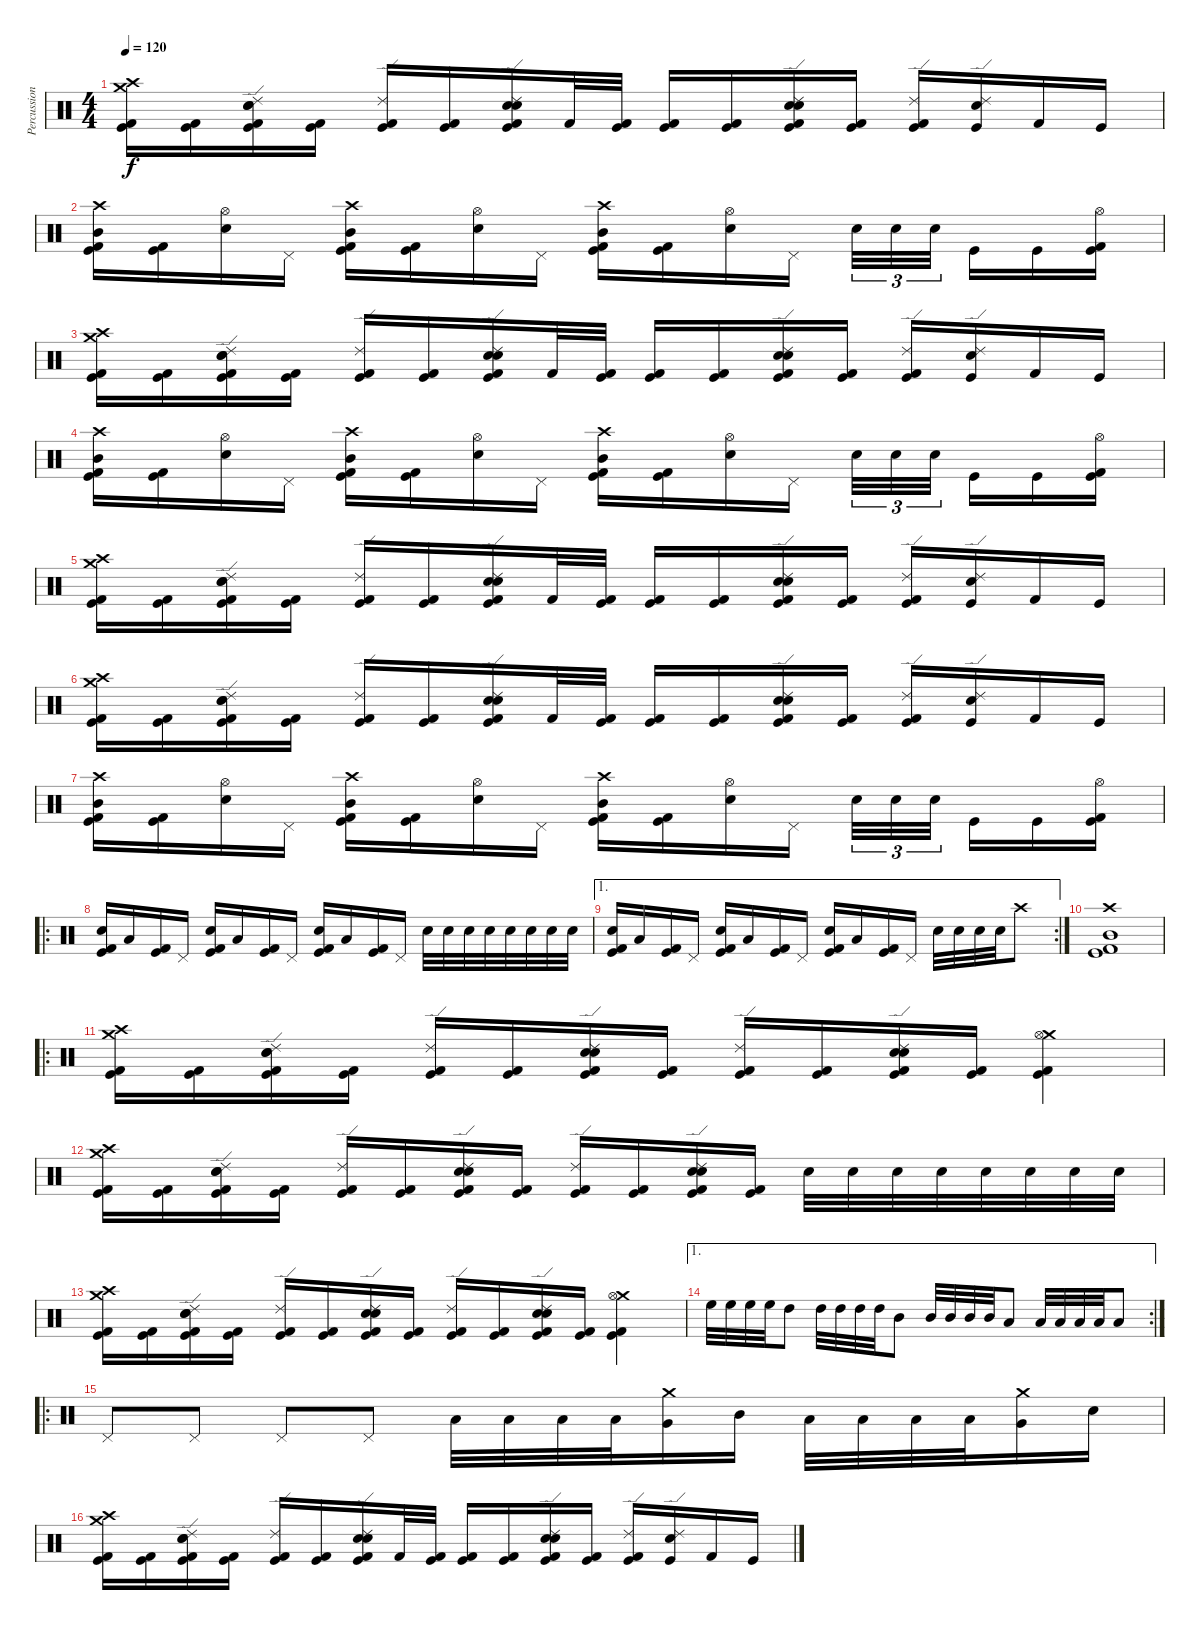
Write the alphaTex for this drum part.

\track ("Percussion" "Percussion") {instrument percussion}
\staff {score}
\articulation defaults
\ts (4 4)
\tempo 120
\clef neutral
\ks c
("Crash high (hit)" "Crash medium (hit)" "Kick (hit) 2" "Kick (hit)").16{dy f} ("Kick (hit) 2" "Kick (hit)").16 ("Ride (edge) 2" "Electric Snare (hit)" "Snare (hit) 2" "Kick (hit) 2" "Kick (hit)").16 ("Kick (hit) 2" "Kick (hit)").16 ("Ride (edge) 2" "Kick (hit) 2" "Kick (hit)").16 ("Kick (hit) 2" "Kick (hit)").16 ("Ride (edge) 2" "Electric Snare (hit)" "Snare (hit) 2" "Kick (hit) 2" "Kick (hit)").16 "Kick (hit) 2".32 ("Kick (hit) 2" "Kick (hit)").32 ("Kick (hit) 2" "Kick (hit)").16 ("Kick (hit) 2" "Kick (hit)").16 ("Ride (edge) 2" "Electric Snare (hit)" "Snare (hit) 2" "Kick (hit) 2" "Kick (hit)").16 ("Kick (hit) 2" "Kick (hit)").16 ("Ride (edge) 2" "Kick (hit) 2" "Kick (hit)").16 ("Snare (hit) 2" "Kick (hit)" "Ride (edge) 2").16 "Kick (hit) 2".16 "Kick (hit)".16 |
("Crash high (hit)" "Mid Tom (hit)" "Kick (hit) 2" "Kick (hit)").16 ("Kick (hit)" "Kick (hit) 2").16 ("Snare (hit) 2" "Hi-Hat (open)").16 "Pedal Hi-Hat (hit)".16 ("Crash high (hit)" "Mid Tom (hit)" "Kick (hit) 2" "Kick (hit)").16 ("Kick (hit)" "Kick (hit) 2").16 ("Snare (hit) 2" "Hi-Hat (open)").16 "Pedal Hi-Hat (hit)".16 ("Crash high (hit)" "Mid Tom (hit)" "Kick (hit) 2" "Kick (hit)").16 ("Kick (hit)" "Kick (hit) 2").16 ("Snare (hit) 2" "Hi-Hat (open)").16 "Pedal Hi-Hat (hit)".16 "Snare (hit) 2".32{tu (3 2)} "Snare (hit) 2".32{tu (3 2)} "Snare (hit) 2".32{tu (3 2)} "Kick (hit)".16 "Kick (hit)".16 ("Kick (hit)" "Hi-Hat (open)" "Kick (hit) 2").16 |
("Crash high (hit)" "Crash medium (hit)" "Kick (hit) 2" "Kick (hit)").16 ("Kick (hit) 2" "Kick (hit)").16 ("Ride (edge) 2" "Electric Snare (hit)" "Snare (hit) 2" "Kick (hit) 2" "Kick (hit)").16 ("Kick (hit) 2" "Kick (hit)").16 ("Ride (edge) 2" "Kick (hit) 2" "Kick (hit)").16 ("Kick (hit) 2" "Kick (hit)").16 ("Ride (edge) 2" "Electric Snare (hit)" "Snare (hit) 2" "Kick (hit) 2" "Kick (hit)").16 "Kick (hit) 2".32 ("Kick (hit) 2" "Kick (hit)").32 ("Kick (hit) 2" "Kick (hit)").16 ("Kick (hit) 2" "Kick (hit)").16 ("Ride (edge) 2" "Electric Snare (hit)" "Snare (hit) 2" "Kick (hit) 2" "Kick (hit)").16 ("Kick (hit) 2" "Kick (hit)").16 ("Ride (edge) 2" "Kick (hit) 2" "Kick (hit)").16 ("Snare (hit) 2" "Kick (hit)" "Ride (edge) 2").16 "Kick (hit) 2".16 "Kick (hit)".16 |
("Crash high (hit)" "Mid Tom (hit)" "Kick (hit) 2" "Kick (hit)").16 ("Kick (hit)" "Kick (hit) 2").16 ("Snare (hit) 2" "Hi-Hat (open)").16 "Pedal Hi-Hat (hit)".16 ("Crash high (hit)" "Mid Tom (hit)" "Kick (hit) 2" "Kick (hit)").16 ("Kick (hit)" "Kick (hit) 2").16 ("Snare (hit) 2" "Hi-Hat (open)").16 "Pedal Hi-Hat (hit)".16 ("Crash high (hit)" "Mid Tom (hit)" "Kick (hit) 2" "Kick (hit)").16 ("Kick (hit)" "Kick (hit) 2").16 ("Snare (hit) 2" "Hi-Hat (open)").16 "Pedal Hi-Hat (hit)".16 "Snare (hit) 2".32{tu (3 2)} "Snare (hit) 2".32{tu (3 2)} "Snare (hit) 2".32{tu (3 2)} "Kick (hit)".16 "Kick (hit)".16 ("Kick (hit)" "Hi-Hat (open)" "Kick (hit) 2").16 |
("Crash high (hit)" "Crash medium (hit)" "Kick (hit) 2" "Kick (hit)").16 ("Kick (hit) 2" "Kick (hit)").16 ("Ride (edge) 2" "Electric Snare (hit)" "Snare (hit) 2" "Kick (hit) 2" "Kick (hit)").16 ("Kick (hit) 2" "Kick (hit)").16 ("Ride (edge) 2" "Kick (hit) 2" "Kick (hit)").16 ("Kick (hit) 2" "Kick (hit)").16 ("Ride (edge) 2" "Electric Snare (hit)" "Snare (hit) 2" "Kick (hit) 2" "Kick (hit)").16 "Kick (hit) 2".32 ("Kick (hit) 2" "Kick (hit)").32 ("Kick (hit) 2" "Kick (hit)").16 ("Kick (hit) 2" "Kick (hit)").16 ("Ride (edge) 2" "Electric Snare (hit)" "Snare (hit) 2" "Kick (hit) 2" "Kick (hit)").16 ("Kick (hit) 2" "Kick (hit)").16 ("Ride (edge) 2" "Kick (hit) 2" "Kick (hit)").16 ("Snare (hit) 2" "Kick (hit)" "Ride (edge) 2").16 "Kick (hit) 2".16 "Kick (hit)".16 |
("Crash high (hit)" "Crash medium (hit)" "Kick (hit) 2" "Kick (hit)").16 ("Kick (hit) 2" "Kick (hit)").16 ("Ride (edge) 2" "Electric Snare (hit)" "Snare (hit) 2" "Kick (hit) 2" "Kick (hit)").16 ("Kick (hit) 2" "Kick (hit)").16 ("Ride (edge) 2" "Kick (hit) 2" "Kick (hit)").16 ("Kick (hit) 2" "Kick (hit)").16 ("Ride (edge) 2" "Electric Snare (hit)" "Snare (hit) 2" "Kick (hit) 2" "Kick (hit)").16 "Kick (hit) 2".32 ("Kick (hit) 2" "Kick (hit)").32 ("Kick (hit) 2" "Kick (hit)").16 ("Kick (hit) 2" "Kick (hit)").16 ("Ride (edge) 2" "Electric Snare (hit)" "Snare (hit) 2" "Kick (hit) 2" "Kick (hit)").16 ("Kick (hit) 2" "Kick (hit)").16 ("Ride (edge) 2" "Kick (hit) 2" "Kick (hit)").16 ("Snare (hit) 2" "Kick (hit)" "Ride (edge) 2").16 "Kick (hit) 2".16 "Kick (hit)".16 |
("Crash high (hit)" "Mid Tom (hit)" "Kick (hit) 2" "Kick (hit)").16 ("Kick (hit)" "Kick (hit) 2").16 ("Snare (hit) 2" "Hi-Hat (open)").16 "Pedal Hi-Hat (hit)".16 ("Crash high (hit)" "Mid Tom (hit)" "Kick (hit) 2" "Kick (hit)").16 ("Kick (hit)" "Kick (hit) 2").16 ("Snare (hit) 2" "Hi-Hat (open)").16 "Pedal Hi-Hat (hit)".16 ("Crash high (hit)" "Mid Tom (hit)" "Kick (hit) 2" "Kick (hit)").16 ("Kick (hit)" "Kick (hit) 2").16 ("Snare (hit) 2" "Hi-Hat (open)").16 "Pedal Hi-Hat (hit)".16 "Snare (hit) 2".32{tu (3 2)} "Snare (hit) 2".32{tu (3 2)} "Snare (hit) 2".32{tu (3 2)} "Kick (hit)".16 "Kick (hit)".16 ("Kick (hit)" "Hi-Hat (open)" "Kick (hit) 2").16 |
\ro
("Kick (hit)" "Kick (hit) 2" "Snare (hit) 2").16 "Low Tom (hit)".16 ("Kick (hit)" "Kick (hit) 2").16 "Pedal Hi-Hat (hit)".16 ("Kick (hit)" "Kick (hit) 2" "Snare (hit) 2").16 "Low Tom (hit)".16 ("Kick (hit)" "Kick (hit) 2").16 "Pedal Hi-Hat (hit)".16 ("Kick (hit)" "Kick (hit) 2" "Snare (hit) 2").16 "Low Tom (hit)".16 ("Kick (hit)" "Kick (hit) 2").16 "Pedal Hi-Hat (hit)".16 "Snare (hit) 2".32 "Snare (hit) 2".32 "Snare (hit) 2".32 "Snare (hit) 2".32 "Snare (hit) 2".32 "Snare (hit) 2".32 "Snare (hit) 2".32 "Snare (hit) 2".32 |
\ae 1
\rc 2
("Kick (hit)" "Kick (hit) 2" "Snare (hit) 2").16 "Low Tom (hit)".16 ("Kick (hit)" "Kick (hit) 2").16 "Pedal Hi-Hat (hit)".16 ("Kick (hit)" "Kick (hit) 2" "Snare (hit) 2").16 "Low Tom (hit)".16 ("Kick (hit)" "Kick (hit) 2").16 "Pedal Hi-Hat (hit)".16 ("Kick (hit)" "Kick (hit) 2" "Snare (hit) 2").16 "Low Tom (hit)".16 ("Kick (hit)" "Kick (hit) 2").16 "Pedal Hi-Hat (hit)".16 "Snare (hit) 2".32 "Snare (hit) 2".32 "Snare (hit) 2".32 "Snare (hit) 2".32 "Crash high (hit)".8 |
("Crash high (hit)" "Kick (hit)" "Kick (hit) 2" "Mid Tom (hit)").1 |
\ro
("Crash high (hit)" "Crash medium (hit)" "Kick (hit) 2" "Kick (hit)").16 ("Kick (hit) 2" "Kick (hit)").16 ("Ride (edge) 2" "Electric Snare (hit)" "Snare (hit) 2" "Kick (hit) 2" "Kick (hit)").16 ("Kick (hit) 2" "Kick (hit)").16 ("Ride (edge) 2" "Kick (hit) 2" "Kick (hit)").16 ("Kick (hit) 2" "Kick (hit)").16 ("Ride (edge) 2" "Electric Snare (hit)" "Snare (hit) 2" "Kick (hit) 2" "Kick (hit)").16 ("Kick (hit) 2" "Kick (hit)").16 ("Ride (edge) 2" "Kick (hit) 2" "Kick (hit)").16 ("Kick (hit) 2" "Kick (hit)").16 ("Ride (edge) 2" "Electric Snare (hit)" "Snare (hit) 2" "Kick (hit) 2" "Kick (hit)").16 ("Kick (hit) 2" "Kick (hit)").16 ("Crash medium (hit)" "Kick (hit) 2" "Kick (hit)" "Hi-Hat (open)").4 |
("Crash high (hit)" "Crash medium (hit)" "Kick (hit) 2" "Kick (hit)").16 ("Kick (hit) 2" "Kick (hit)").16 ("Ride (edge) 2" "Electric Snare (hit)" "Snare (hit) 2" "Kick (hit) 2" "Kick (hit)").16 ("Kick (hit) 2" "Kick (hit)").16 ("Ride (edge) 2" "Kick (hit) 2" "Kick (hit)").16 ("Kick (hit) 2" "Kick (hit)").16 ("Ride (edge) 2" "Electric Snare (hit)" "Snare (hit) 2" "Kick (hit) 2" "Kick (hit)").16 ("Kick (hit) 2" "Kick (hit)").16 ("Ride (edge) 2" "Kick (hit) 2" "Kick (hit)").16 ("Kick (hit) 2" "Kick (hit)").16 ("Ride (edge) 2" "Electric Snare (hit)" "Snare (hit) 2" "Kick (hit) 2" "Kick (hit)").16 ("Kick (hit) 2" "Kick (hit)").16 "Snare (hit) 2".32 "Snare (hit) 2".32 "Snare (hit) 2".32 "Snare (hit) 2".32 "Snare (hit) 2".32 "Snare (hit) 2".32 "Snare (hit) 2".32 "Snare (hit) 2".32 |
("Crash high (hit)" "Crash medium (hit)" "Kick (hit) 2" "Kick (hit)").16 ("Kick (hit) 2" "Kick (hit)").16 ("Ride (edge) 2" "Electric Snare (hit)" "Snare (hit) 2" "Kick (hit) 2" "Kick (hit)").16 ("Kick (hit) 2" "Kick (hit)").16 ("Ride (edge) 2" "Kick (hit) 2" "Kick (hit)").16 ("Kick (hit) 2" "Kick (hit)").16 ("Ride (edge) 2" "Electric Snare (hit)" "Snare (hit) 2" "Kick (hit) 2" "Kick (hit)").16 ("Kick (hit) 2" "Kick (hit)").16 ("Ride (edge) 2" "Kick (hit) 2" "Kick (hit)").16 ("Kick (hit) 2" "Kick (hit)").16 ("Ride (edge) 2" "Electric Snare (hit)" "Snare (hit) 2" "Kick (hit) 2" "Kick (hit)").16 ("Kick (hit) 2" "Kick (hit)").16 ("Crash medium (hit)" "Kick (hit) 2" "Kick (hit)" "Hi-Hat (open)").4 |
\ae 1
\rc 2 "High Floor Tom (hit)".32 "High Floor Tom (hit)".32 "High Floor Tom (hit)".32 "High Floor Tom (hit)".32 "High Tom (hit)".8 "High Tom (hit)".32 "High Tom (hit)".32 "High Tom (hit)".32 "High Tom (hit)".32 "Mid Tom (hit)".8 "Mid Tom (hit)".32 "Mid Tom (hit)".32 "Mid Tom (hit)".32 "Mid Tom (hit)".32 "Low Tom (hit)".8 "Low Tom (hit)".32 "Low Tom (hit)".32 "Low Tom (hit)".32 "Low Tom (hit)".32 "Low Floor Tom (hit)".8
|
\ro "Pedal Hi-Hat (hit)".8 "Pedal Hi-Hat (hit)".8 "Pedal Hi-Hat (hit)".8 "Pedal Hi-Hat (hit)".8 "Low Tom (hit)".32 "Low Tom (hit)".32 "Low Tom (hit)".32 "Low Tom (hit)".32
("Crash medium (hit)" "Very Low Tom (hit)").16 "Mid Tom (hit)".16 "Low Tom (hit)".32 "Low Tom (hit)".32 "Low Tom (hit)".32 "Low Tom (hit)".32 ("Crash medium (hit)" "Very Low Tom (hit)").16 "Snare (hit) 2".16 |
("Crash high (hit)" "Crash medium (hit)" "Kick (hit) 2" "Kick (hit)").16 ("Kick (hit) 2" "Kick (hit)").16 ("Ride (edge) 2" "Electric Snare (hit)" "Snare (hit) 2" "Kick (hit) 2" "Kick (hit)").16 ("Kick (hit) 2" "Kick (hit)").16 ("Ride (edge) 2" "Kick (hit) 2" "Kick (hit)").16 ("Kick (hit) 2" "Kick (hit)").16 ("Ride (edge) 2" "Electric Snare (hit)" "Snare (hit) 2" "Kick (hit) 2" "Kick (hit)").16 "Kick (hit) 2".32 ("Kick (hit) 2" "Kick (hit)").32 ("Kick (hit) 2" "Kick (hit)").16 ("Kick (hit) 2" "Kick (hit)").16 ("Ride (edge) 2" "Electric Snare (hit)" "Snare (hit) 2" "Kick (hit) 2" "Kick (hit)").16 ("Kick (hit) 2" "Kick (hit)").16 ("Ride (edge) 2" "Kick (hit) 2" "Kick (hit)").16 ("Snare (hit) 2" "Kick (hit)" "Ride (edge) 2").16 "Kick (hit) 2".16 "Kick (hit)".16
